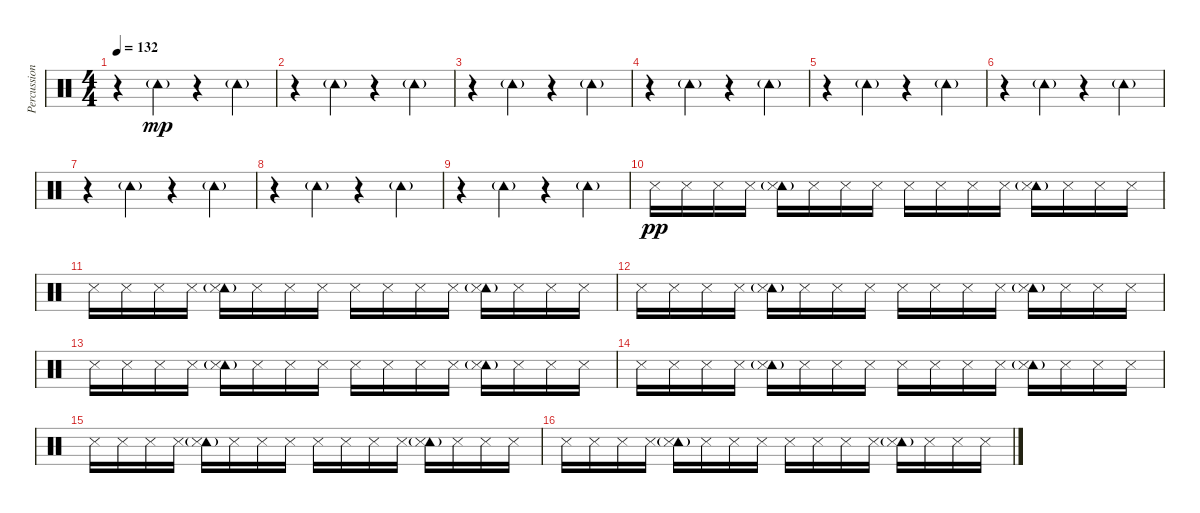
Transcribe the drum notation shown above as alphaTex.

\track ("Percussion" "Percussion") {instrument percussion}
\staff {score}
\articulation defaults
\ts (4 4)
\tempo 132
\clef neutral
\ks c
r.4{dy mp} "Tambourine (hit)"{g}.4 r.4 "Tambourine (hit)"{g}.4 |
r.4 "Tambourine (hit)"{g}.4 r.4 "Tambourine (hit)"{g}.4 |
r.4 "Tambourine (hit)"{g}.4 r.4 "Tambourine (hit)"{g}.4 |
r.4 "Tambourine (hit)"{g}.4 r.4 "Tambourine (hit)"{g}.4 |
r.4 "Tambourine (hit)"{g}.4 r.4 "Tambourine (hit)"{g}.4 |
r.4 "Tambourine (hit)"{g}.4 r.4 "Tambourine (hit)"{g}.4 |
r.4 "Tambourine (hit)"{g}.4 r.4 "Tambourine (hit)"{g}.4 |
r.4 "Tambourine (hit)"{g}.4 r.4 "Tambourine (hit)"{g}.4 |
r.4 "Tambourine (hit)"{g}.4 r.4 "Tambourine (hit)"{g}.4 |
"Snare (side stick) 3".16{dy pp} "Snare (side stick) 3".16 "Snare (side stick) 3".16 "Snare (side stick) 3".16 ("Tambourine (hit)"{g} "Snare (side stick) 3").16 "Snare (side stick) 3".16 "Snare (side stick) 3".16 "Snare (side stick) 3".16 "Snare (side stick) 3".16 "Snare (side stick) 3".16 "Snare (side stick) 3".16 "Snare (side stick) 3".16 ("Tambourine (hit)"{g} "Snare (side stick) 3").16 "Snare (side stick) 3".16 "Snare (side stick) 3".16 "Snare (side stick) 3".16 |
"Snare (side stick) 3".16 "Snare (side stick) 3".16 "Snare (side stick) 3".16 "Snare (side stick) 3".16 ("Tambourine (hit)"{g} "Snare (side stick) 3").16 "Snare (side stick) 3".16 "Snare (side stick) 3".16 "Snare (side stick) 3".16 "Snare (side stick) 3".16 "Snare (side stick) 3".16 "Snare (side stick) 3".16 "Snare (side stick) 3".16 ("Tambourine (hit)"{g} "Snare (side stick) 3").16 "Snare (side stick) 3".16 "Snare (side stick) 3".16 "Snare (side stick) 3".16 |
"Snare (side stick) 3".16 "Snare (side stick) 3".16 "Snare (side stick) 3".16 "Snare (side stick) 3".16 ("Tambourine (hit)"{g} "Snare (side stick) 3").16 "Snare (side stick) 3".16 "Snare (side stick) 3".16 "Snare (side stick) 3".16 "Snare (side stick) 3".16 "Snare (side stick) 3".16 "Snare (side stick) 3".16 "Snare (side stick) 3".16 ("Tambourine (hit)"{g} "Snare (side stick) 3").16 "Snare (side stick) 3".16 "Snare (side stick) 3".16 "Snare (side stick) 3".16 |
"Snare (side stick) 3".16 "Snare (side stick) 3".16 "Snare (side stick) 3".16 "Snare (side stick) 3".16 ("Tambourine (hit)"{g} "Snare (side stick) 3").16 "Snare (side stick) 3".16 "Snare (side stick) 3".16 "Snare (side stick) 3".16 "Snare (side stick) 3".16 "Snare (side stick) 3".16 "Snare (side stick) 3".16 "Snare (side stick) 3".16 ("Tambourine (hit)"{g} "Snare (side stick) 3").16 "Snare (side stick) 3".16 "Snare (side stick) 3".16 "Snare (side stick) 3".16 |
"Snare (side stick) 3".16 "Snare (side stick) 3".16 "Snare (side stick) 3".16 "Snare (side stick) 3".16 ("Tambourine (hit)"{g} "Snare (side stick) 3").16 "Snare (side stick) 3".16 "Snare (side stick) 3".16 "Snare (side stick) 3".16 "Snare (side stick) 3".16 "Snare (side stick) 3".16 "Snare (side stick) 3".16 "Snare (side stick) 3".16 ("Tambourine (hit)"{g} "Snare (side stick) 3").16 "Snare (side stick) 3".16 "Snare (side stick) 3".16 "Snare (side stick) 3".16 |
"Snare (side stick) 3".16 "Snare (side stick) 3".16 "Snare (side stick) 3".16 "Snare (side stick) 3".16 ("Tambourine (hit)"{g} "Snare (side stick) 3").16 "Snare (side stick) 3".16 "Snare (side stick) 3".16 "Snare (side stick) 3".16 "Snare (side stick) 3".16 "Snare (side stick) 3".16 "Snare (side stick) 3".16 "Snare (side stick) 3".16 ("Tambourine (hit)"{g} "Snare (side stick) 3").16 "Snare (side stick) 3".16 "Snare (side stick) 3".16 "Snare (side stick) 3".16 |
"Snare (side stick) 3".16 "Snare (side stick) 3".16 "Snare (side stick) 3".16 "Snare (side stick) 3".16 ("Tambourine (hit)"{g} "Snare (side stick) 3").16 "Snare (side stick) 3".16 "Snare (side stick) 3".16 "Snare (side stick) 3".16 "Snare (side stick) 3".16 "Snare (side stick) 3".16 "Snare (side stick) 3".16 "Snare (side stick) 3".16 ("Tambourine (hit)"{g} "Snare (side stick) 3").16 "Snare (side stick) 3".16 "Snare (side stick) 3".16 "Snare (side stick) 3".16
